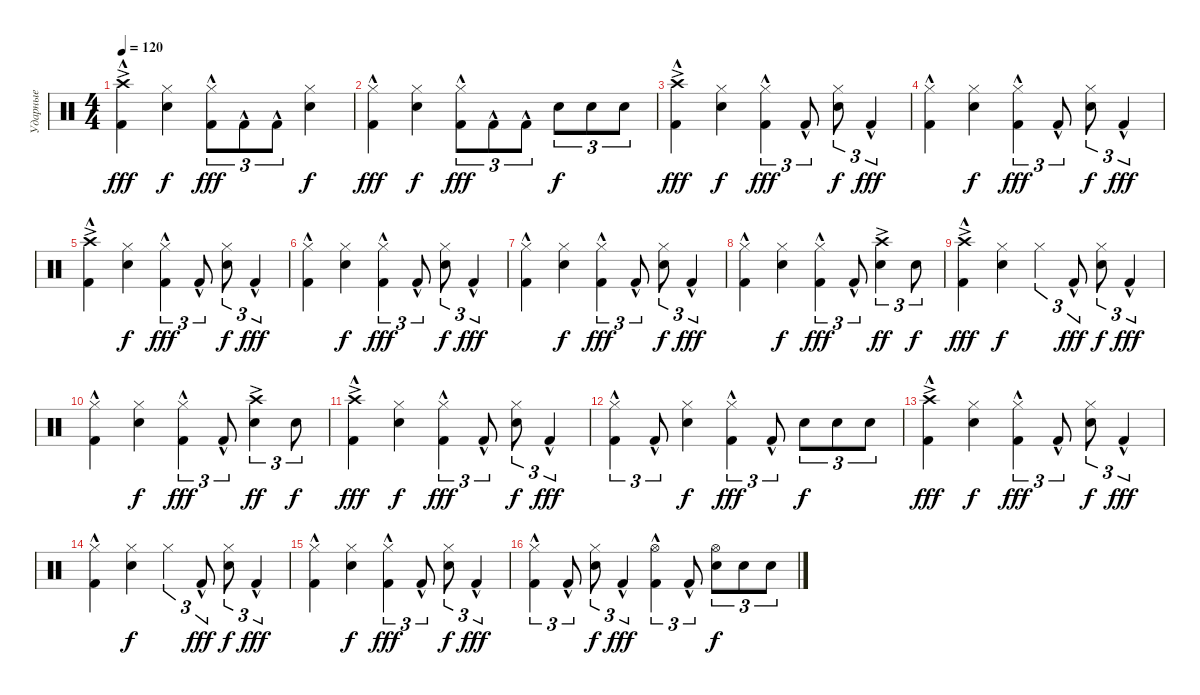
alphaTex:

\track ("Ударные" "Ударные") {instrument percussion}
\staff {score}
\articulation defaults
\ts (4 4)
\tempo 120
\clef neutral
\ks c
("Crash high (hit)"{ac} "Kick (hit) 2"{hac}).4{dy fff} ("Hi-Hat (closed)" "Snare (hit) 2").4{dy f} ("Hi-Hat (closed)" "Kick (hit) 2"{hac}).8{tu (3 2) dy fff} "Kick (hit) 2"{hac}.8{tu (3 2)} "Kick (hit) 2"{hac}.8{tu (3 2)} ("Hi-Hat (closed)" "Snare (hit) 2").4{dy f} |
("Hi-Hat (closed)" "Kick (hit) 2"{hac}).4{dy fff} ("Hi-Hat (closed)" "Snare (hit) 2").4{dy f} ("Hi-Hat (closed)" "Kick (hit) 2"{hac}).8{tu (3 2) dy fff} "Kick (hit) 2"{hac}.8{tu (3 2)} "Kick (hit) 2"{hac}.8{tu (3 2)} "Snare (hit) 2".8{tu (3 2) dy f} "Snare (hit) 2".8{tu (3 2)} "Snare (hit) 2".8{tu (3 2)} |
("Crash high (hit)"{ac} "Kick (hit) 2"{hac}).4{dy fff} ("Hi-Hat (closed)" "Snare (hit) 2").4{dy f} ("Hi-Hat (closed)" "Kick (hit) 2"{hac}).4{tu (3 2) dy fff} "Kick (hit) 2"{hac}.8{tu (3 2)} ("Hi-Hat (closed)" "Snare (hit) 2").8{tu (3 2) dy f} "Kick (hit) 2"{hac}.4{tu (3 2) dy fff} |
("Hi-Hat (closed)" "Kick (hit) 2"{hac}).4 ("Hi-Hat (closed)" "Snare (hit) 2").4{dy f} ("Hi-Hat (closed)" "Kick (hit) 2"{hac}).4{tu (3 2) dy fff} "Kick (hit) 2"{hac}.8{tu (3 2)} ("Hi-Hat (closed)" "Snare (hit) 2").8{tu (3 2) dy f} "Kick (hit) 2"{hac}.4{tu (3 2) dy fff} |
("Crash high (hit)"{ac} "Kick (hit) 2"{hac}).4 ("Hi-Hat (closed)" "Snare (hit) 2").4{dy f} ("Hi-Hat (closed)" "Kick (hit) 2"{hac}).4{tu (3 2) dy fff} "Kick (hit) 2"{hac}.8{tu (3 2)} ("Hi-Hat (closed)" "Snare (hit) 2").8{tu (3 2) dy f} "Kick (hit) 2"{hac}.4{tu (3 2) dy fff} |
("Hi-Hat (closed)" "Kick (hit) 2"{hac}).4 ("Hi-Hat (closed)" "Snare (hit) 2").4{dy f} ("Hi-Hat (closed)" "Kick (hit) 2"{hac}).4{tu (3 2) dy fff} "Kick (hit) 2"{hac}.8{tu (3 2)} ("Hi-Hat (closed)" "Snare (hit) 2").8{tu (3 2) dy f} "Kick (hit) 2"{hac}.4{tu (3 2) dy fff} |
("Hi-Hat (closed)" "Kick (hit) 2"{hac}).4 ("Hi-Hat (closed)" "Snare (hit) 2").4{dy f} ("Hi-Hat (closed)" "Kick (hit) 2"{hac}).4{tu (3 2) dy fff} "Kick (hit) 2"{hac}.8{tu (3 2)} ("Hi-Hat (closed)" "Snare (hit) 2").8{tu (3 2) dy f} "Kick (hit) 2"{hac}.4{tu (3 2) dy fff} |
("Hi-Hat (closed)" "Kick (hit) 2"{hac}).4 ("Hi-Hat (closed)" "Snare (hit) 2").4{dy f} ("Hi-Hat (closed)" "Kick (hit) 2"{hac}).4{tu (3 2) dy fff} "Kick (hit) 2"{hac}.8{tu (3 2)} ("Crash high (hit)"{ac} "Snare (hit) 2").4{tu (3 2) dy ff} "Snare (hit) 2".8{tu (3 2) dy f} |
("Crash high (hit)"{ac} "Kick (hit) 2"{hac}).4{dy fff} ("Hi-Hat (closed)" "Snare (hit) 2").4{dy f} "Hi-Hat (closed)".4{tu (3 2)} "Kick (hit) 2"{hac}.8{tu (3 2) dy fff} ("Hi-Hat (closed)" "Snare (hit) 2").8{tu (3 2) dy f} "Kick (hit) 2"{hac}.4{tu (3 2) dy fff} |
("Hi-Hat (closed)" "Kick (hit) 2"{hac}).4 ("Hi-Hat (closed)" "Snare (hit) 2").4{dy f} ("Hi-Hat (closed)" "Kick (hit) 2"{hac}).4{tu (3 2) dy fff} "Kick (hit) 2"{hac}.8{tu (3 2)} ("Crash high (hit)"{ac} "Snare (hit) 2").4{tu (3 2) dy ff} "Snare (hit) 2".8{tu (3 2) dy f} |
("Crash high (hit)"{ac} "Kick (hit) 2"{hac}).4{dy fff} ("Hi-Hat (closed)" "Snare (hit) 2").4{dy f} ("Hi-Hat (closed)" "Kick (hit) 2"{hac}).4{tu (3 2) dy fff} "Kick (hit) 2"{hac}.8{tu (3 2)} ("Hi-Hat (closed)" "Snare (hit) 2").8{tu (3 2) dy f} "Kick (hit) 2"{hac}.4{tu (3 2) dy fff} |
("Hi-Hat (closed)" "Kick (hit) 2"{hac}).4{tu (3 2)} "Kick (hit) 2"{hac}.8{tu (3 2)} ("Hi-Hat (closed)" "Snare (hit) 2").4{dy f} ("Hi-Hat (closed)" "Kick (hit) 2"{hac}).4{tu (3 2) dy fff} "Kick (hit) 2"{hac}.8{tu (3 2)} "Snare (hit) 2".8{tu (3 2) dy f} "Snare (hit) 2".8{tu (3 2)} "Snare (hit) 2".8{tu (3 2)} |
("Crash high (hit)"{ac} "Kick (hit) 2"{hac}).4{dy fff} ("Hi-Hat (closed)" "Snare (hit) 2").4{dy f} ("Hi-Hat (closed)" "Kick (hit) 2"{hac}).4{tu (3 2) dy fff} "Kick (hit) 2"{hac}.8{tu (3 2)} ("Hi-Hat (closed)" "Snare (hit) 2").8{tu (3 2) dy f} "Kick (hit) 2"{hac}.4{tu (3 2) dy fff} |
("Hi-Hat (closed)" "Kick (hit) 2"{hac}).4 ("Hi-Hat (closed)" "Snare (hit) 2").4{dy f} "Hi-Hat (closed)".4{tu (3 2)} "Kick (hit) 2"{hac}.8{tu (3 2) dy fff} ("Hi-Hat (closed)" "Snare (hit) 2").8{tu (3 2) dy f} "Kick (hit) 2"{hac}.4{tu (3 2) dy fff} |
("Hi-Hat (closed)" "Kick (hit) 2"{hac}).4 ("Hi-Hat (closed)" "Snare (hit) 2").4{dy f} ("Hi-Hat (closed)" "Kick (hit) 2"{hac}).4{tu (3 2) dy fff} "Kick (hit) 2"{hac}.8{tu (3 2)} ("Hi-Hat (closed)" "Snare (hit) 2").8{tu (3 2) dy f} "Kick (hit) 2"{hac}.4{tu (3 2) dy fff} |
("Hi-Hat (closed)" "Kick (hit) 2"{hac}).4{tu (3 2)} "Kick (hit) 2"{hac}.8{tu (3 2)} ("Hi-Hat (closed)" "Snare (hit) 2").8{tu (3 2) dy f} "Kick (hit) 2"{hac}.4{tu (3 2) dy fff} ("Hi-Hat (open)" "Kick (hit) 2"{hac}).4{tu (3 2)} "Kick (hit) 2"{hac}.8{tu (3 2)} ("Hi-Hat (open)" "Snare (hit) 2").8{tu (3 2) dy f} "Snare (hit) 2".8{tu (3 2)} "Snare (hit) 2".8{tu (3 2)}
